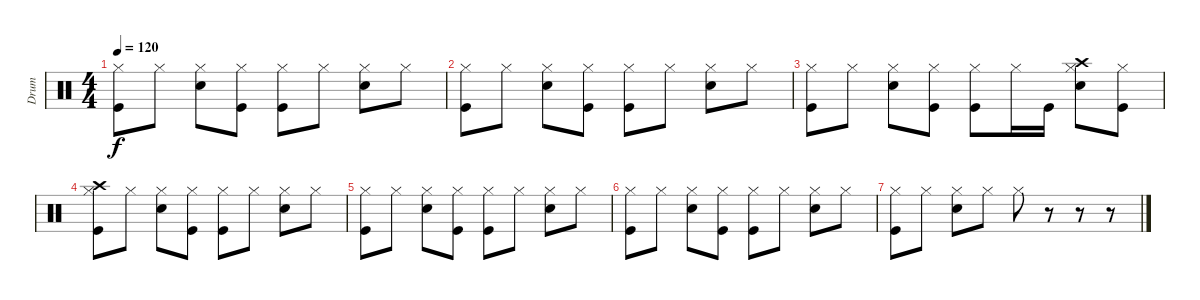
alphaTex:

\track ("Drum" "Drum") {instrument percussion}
\staff {score}
\articulation defaults
\ts (4 4)
\tempo 120
\clef neutral
\ks c
("Hi-Hat (closed)" "Kick (hit)").8{dy f} "Hi-Hat (closed)".8 ("Hi-Hat (closed)" "Snare (hit) 2").8 ("Hi-Hat (closed)" "Kick (hit)").8 ("Hi-Hat (closed)" "Kick (hit)").8 "Hi-Hat (closed)".8 ("Hi-Hat (closed)" "Snare (hit) 2").8 "Hi-Hat (closed)".8 |
("Hi-Hat (closed)" "Kick (hit)").8 "Hi-Hat (closed)".8 ("Hi-Hat (closed)" "Snare (hit) 2").8 ("Hi-Hat (closed)" "Kick (hit)").8 ("Hi-Hat (closed)" "Kick (hit)").8 "Hi-Hat (closed)".8 ("Hi-Hat (closed)" "Snare (hit) 2").8 "Hi-Hat (closed)".8 |
("Hi-Hat (closed)" "Kick (hit)").8 "Hi-Hat (closed)".8 ("Hi-Hat (closed)" "Snare (hit) 2").8 ("Hi-Hat (closed)" "Kick (hit)").8 ("Hi-Hat (closed)" "Kick (hit)").8 "Hi-Hat (closed)".16 "Kick (hit)".16 ("Hi-Hat (closed)" "Snare (hit) 2" "Crash high (hit)").8 ("Hi-Hat (closed)" "Kick (hit)").8 |
("Hi-Hat (closed)" "Crash high (hit)" "Kick (hit)").8 "Hi-Hat (closed)".8 ("Hi-Hat (closed)" "Snare (hit) 2").8 ("Hi-Hat (closed)" "Kick (hit)").8 ("Hi-Hat (closed)" "Kick (hit)").8 "Hi-Hat (closed)".8 ("Hi-Hat (closed)" "Snare (hit) 2").8 "Hi-Hat (closed)".8 |
("Hi-Hat (closed)" "Kick (hit)").8 "Hi-Hat (closed)".8 ("Hi-Hat (closed)" "Snare (hit) 2").8 ("Hi-Hat (closed)" "Kick (hit)").8 ("Hi-Hat (closed)" "Kick (hit)").8 "Hi-Hat (closed)".8 ("Hi-Hat (closed)" "Snare (hit) 2").8 "Hi-Hat (closed)".8 |
("Hi-Hat (closed)" "Kick (hit)").8 "Hi-Hat (closed)".8 ("Hi-Hat (closed)" "Snare (hit) 2").8 ("Hi-Hat (closed)" "Kick (hit)").8 ("Hi-Hat (closed)" "Kick (hit)").8 "Hi-Hat (closed)".8 ("Hi-Hat (closed)" "Snare (hit) 2").8 "Hi-Hat (closed)".8 |
("Hi-Hat (closed)" "Kick (hit)").8 "Hi-Hat (closed)".8 ("Hi-Hat (closed)" "Snare (hit) 2").8 "Hi-Hat (closed)".8 "Hi-Hat (closed)".8 r.8 r.8 r.8
